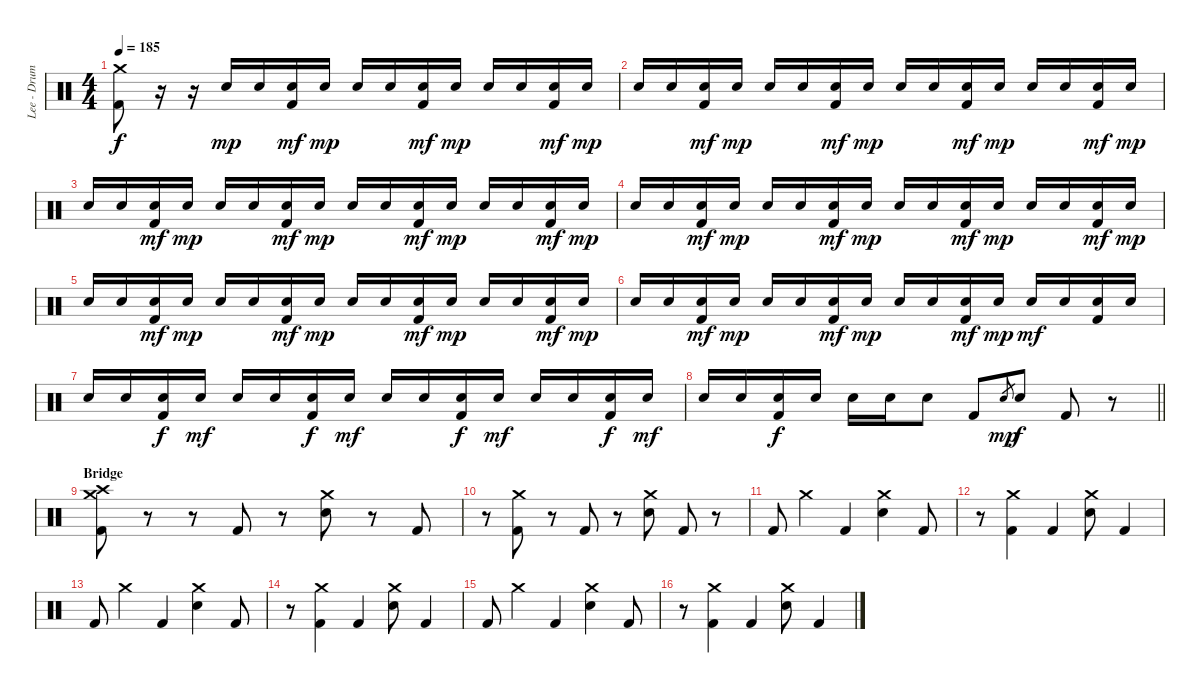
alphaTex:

\track ("Lee - Drums" "Lee - Drum") {instrument percussion}
\staff {score}
\articulation defaults
\ts (4 4)
\tempo 185
\clef neutral
\ks c
("Crash medium (hit)" "Kick (hit) 2").8{dy f} r.16 r.16 "Snare (hit) 2".16{dy mp} "Snare (hit) 2".16 ("Snare (hit) 2" "Kick (hit) 2").16{dy mf} "Snare (hit) 2".16{dy mp} "Snare (hit) 2".16 "Snare (hit) 2".16 ("Snare (hit) 2" "Kick (hit) 2").16{dy mf} "Snare (hit) 2".16{dy mp} "Snare (hit) 2".16 "Snare (hit) 2".16 ("Snare (hit) 2" "Kick (hit) 2").16{dy mf} "Snare (hit) 2".16{dy mp} |
"Snare (hit) 2".16 "Snare (hit) 2".16 ("Snare (hit) 2" "Kick (hit) 2").16{dy mf} "Snare (hit) 2".16{dy mp} "Snare (hit) 2".16 "Snare (hit) 2".16 ("Snare (hit) 2" "Kick (hit) 2").16{dy mf} "Snare (hit) 2".16{dy mp} "Snare (hit) 2".16 "Snare (hit) 2".16 ("Snare (hit) 2" "Kick (hit) 2").16{dy mf} "Snare (hit) 2".16{dy mp} "Snare (hit) 2".16 "Snare (hit) 2".16 ("Snare (hit) 2" "Kick (hit) 2").16{dy mf} "Snare (hit) 2".16{dy mp} |
"Snare (hit) 2".16 "Snare (hit) 2".16 ("Snare (hit) 2" "Kick (hit) 2").16{dy mf} "Snare (hit) 2".16{dy mp} "Snare (hit) 2".16 "Snare (hit) 2".16 ("Snare (hit) 2" "Kick (hit) 2").16{dy mf} "Snare (hit) 2".16{dy mp} "Snare (hit) 2".16 "Snare (hit) 2".16 ("Snare (hit) 2" "Kick (hit) 2").16{dy mf} "Snare (hit) 2".16{dy mp} "Snare (hit) 2".16 "Snare (hit) 2".16 ("Snare (hit) 2" "Kick (hit) 2").16{dy mf} "Snare (hit) 2".16{dy mp} |
"Snare (hit) 2".16 "Snare (hit) 2".16 ("Snare (hit) 2" "Kick (hit) 2").16{dy mf} "Snare (hit) 2".16{dy mp} "Snare (hit) 2".16 "Snare (hit) 2".16 ("Snare (hit) 2" "Kick (hit) 2").16{dy mf} "Snare (hit) 2".16{dy mp} "Snare (hit) 2".16 "Snare (hit) 2".16 ("Snare (hit) 2" "Kick (hit) 2").16{dy mf} "Snare (hit) 2".16{dy mp} "Snare (hit) 2".16 "Snare (hit) 2".16 ("Snare (hit) 2" "Kick (hit) 2").16{dy mf} "Snare (hit) 2".16{dy mp} |
"Snare (hit) 2".16 "Snare (hit) 2".16 ("Snare (hit) 2" "Kick (hit) 2").16{dy mf} "Snare (hit) 2".16{dy mp} "Snare (hit) 2".16 "Snare (hit) 2".16 ("Snare (hit) 2" "Kick (hit) 2").16{dy mf} "Snare (hit) 2".16{dy mp} "Snare (hit) 2".16 "Snare (hit) 2".16 ("Snare (hit) 2" "Kick (hit) 2").16{dy mf} "Snare (hit) 2".16{dy mp} "Snare (hit) 2".16 "Snare (hit) 2".16 ("Snare (hit) 2" "Kick (hit) 2").16{dy mf} "Snare (hit) 2".16{dy mp} |
"Snare (hit) 2".16 "Snare (hit) 2".16 ("Snare (hit) 2" "Kick (hit) 2").16{dy mf} "Snare (hit) 2".16{dy mp} "Snare (hit) 2".16 "Snare (hit) 2".16 ("Snare (hit) 2" "Kick (hit) 2").16{dy mf} "Snare (hit) 2".16{dy mp} "Snare (hit) 2".16 "Snare (hit) 2".16 ("Snare (hit) 2" "Kick (hit) 2").16{dy mf} "Snare (hit) 2".16{dy mp} "Snare (hit) 2".16{dy mf} "Snare (hit) 2".16 ("Snare (hit) 2" "Kick (hit) 2").16 "Snare (hit) 2".16 |
"Snare (hit) 2".16 "Snare (hit) 2".16 ("Snare (hit) 2" "Kick (hit) 2").16{dy f} "Snare (hit) 2".16{dy mf} "Snare (hit) 2".16 "Snare (hit) 2".16 ("Snare (hit) 2" "Kick (hit) 2").16{dy f} "Snare (hit) 2".16{dy mf} "Snare (hit) 2".16 "Snare (hit) 2".16 ("Snare (hit) 2" "Kick (hit) 2").16{dy f} "Snare (hit) 2".16{dy mf} "Snare (hit) 2".16 "Snare (hit) 2".16 ("Snare (hit) 2" "Kick (hit) 2").16{dy f} "Snare (hit) 2".16{dy mf} |
\barLineRight lightlight "Snare (hit) 2".16 "Snare (hit) 2".16
("Snare (hit) 2" "Kick (hit) 2").16{dy f} "Snare (hit) 2".16 "Snare (hit) 2".16 "Snare (hit) 2".16 "Snare (hit) 2".8 "Kick (hit) 2".8 "Snare (hit) 2".8{gr dy mp} "Snare (hit) 2".8{dy f} "Kick (hit) 2".8 r.8 |
\section ("" "Bridge")
("Crash medium (hit)" "Crash high (hit)" "Kick (hit) 2").8 r.8 r.8 "Kick (hit) 2".8 r.8 ("Crash medium (hit)" "Snare (hit) 2").8 r.8 "Kick (hit) 2".8 |
r.8 ("Crash medium (hit)" "Kick (hit) 2").8 r.8 "Kick (hit) 2".8 r.8 ("Crash medium (hit)" "Snare (hit) 2").8 "Kick (hit) 2".8 r.8 |
"Kick (hit) 2".8 "Crash medium (hit)".4 "Kick (hit) 2".4 ("Crash medium (hit)" "Snare (hit) 2").4 "Kick (hit) 2".8 |
r.8 ("Crash medium (hit)" "Kick (hit) 2").4 "Kick (hit) 2".4 ("Crash medium (hit)" "Snare (hit) 2").8 "Kick (hit) 2".4 |
"Kick (hit) 2".8 "Crash medium (hit)".4 "Kick (hit) 2".4 ("Crash medium (hit)" "Snare (hit) 2").4 "Kick (hit) 2".8 |
r.8 ("Crash medium (hit)" "Kick (hit) 2").4 "Kick (hit) 2".4 ("Crash medium (hit)" "Snare (hit) 2").8 "Kick (hit) 2".4 |
"Kick (hit) 2".8 "Crash medium (hit)".4 "Kick (hit) 2".4 ("Crash medium (hit)" "Snare (hit) 2").4 "Kick (hit) 2".8 |
r.8 ("Crash medium (hit)" "Kick (hit) 2").4 "Kick (hit) 2".4 ("Crash medium (hit)" "Snare (hit) 2").8 "Kick (hit) 2".4
